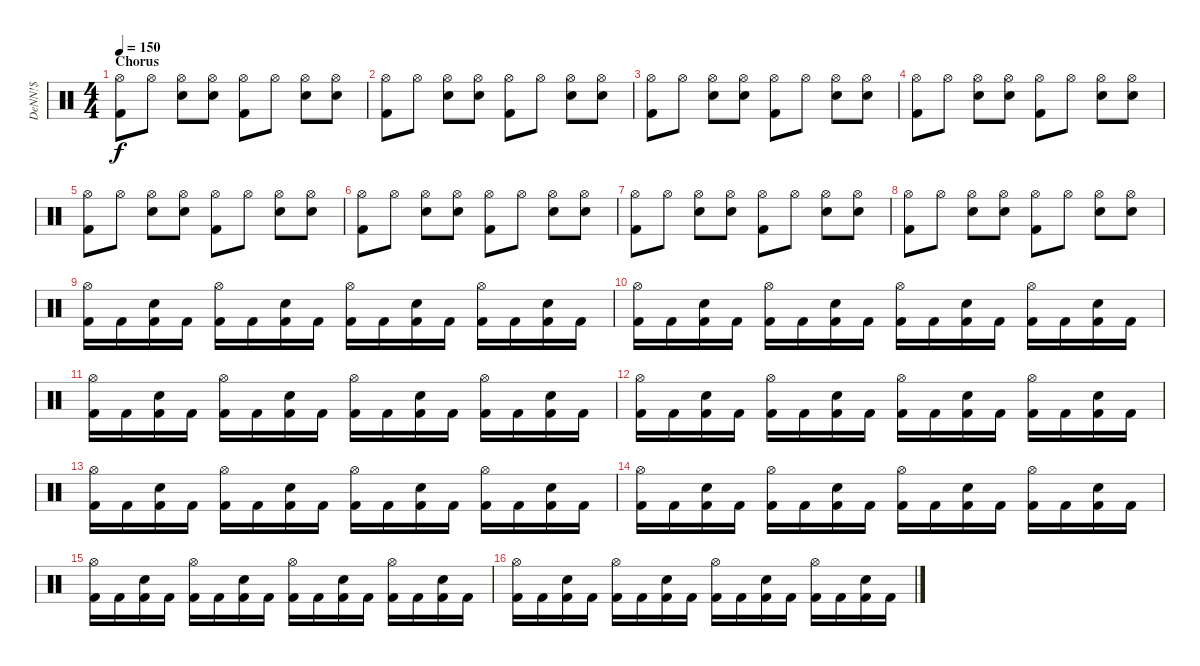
\track ("DeNN!$" "DeNN!$") {instrument percussion}
\staff {score}
\articulation defaults
\ts (4 4)
\section ("" "Chorus")
\tempo 150
\clef neutral
\ks c
("Hi-Hat (open)" "Kick (hit) 2").8{dy f} "Hi-Hat (open)".8 ("Snare (hit) 2" "Hi-Hat (open)").8 ("Snare (hit) 2" "Hi-Hat (open)").8 ("Hi-Hat (open)" "Kick (hit) 2").8 "Hi-Hat (open)".8 ("Snare (hit) 2" "Hi-Hat (open)").8 ("Snare (hit) 2" "Hi-Hat (open)").8 |
("Hi-Hat (open)" "Kick (hit) 2").8 "Hi-Hat (open)".8 ("Snare (hit) 2" "Hi-Hat (open)").8 ("Snare (hit) 2" "Hi-Hat (open)").8 ("Hi-Hat (open)" "Kick (hit) 2").8 "Hi-Hat (open)".8 ("Snare (hit) 2" "Hi-Hat (open)").8 ("Snare (hit) 2" "Hi-Hat (open)").8 |
("Hi-Hat (open)" "Kick (hit) 2").8 "Hi-Hat (open)".8 ("Snare (hit) 2" "Hi-Hat (open)").8 ("Snare (hit) 2" "Hi-Hat (open)").8 ("Hi-Hat (open)" "Kick (hit) 2").8 "Hi-Hat (open)".8 ("Snare (hit) 2" "Hi-Hat (open)").8 ("Snare (hit) 2" "Hi-Hat (open)").8 |
("Hi-Hat (open)" "Kick (hit) 2").8 "Hi-Hat (open)".8 ("Snare (hit) 2" "Hi-Hat (open)").8 ("Snare (hit) 2" "Hi-Hat (open)").8 ("Hi-Hat (open)" "Kick (hit) 2").8 "Hi-Hat (open)".8 ("Snare (hit) 2" "Hi-Hat (open)").8 ("Snare (hit) 2" "Hi-Hat (open)").8 |
("Hi-Hat (open)" "Kick (hit) 2").8 "Hi-Hat (open)".8 ("Snare (hit) 2" "Hi-Hat (open)").8 ("Snare (hit) 2" "Hi-Hat (open)").8 ("Hi-Hat (open)" "Kick (hit) 2").8 "Hi-Hat (open)".8 ("Snare (hit) 2" "Hi-Hat (open)").8 ("Snare (hit) 2" "Hi-Hat (open)").8 |
("Hi-Hat (open)" "Kick (hit) 2").8 "Hi-Hat (open)".8 ("Snare (hit) 2" "Hi-Hat (open)").8 ("Snare (hit) 2" "Hi-Hat (open)").8 ("Hi-Hat (open)" "Kick (hit) 2").8 "Hi-Hat (open)".8 ("Snare (hit) 2" "Hi-Hat (open)").8 ("Snare (hit) 2" "Hi-Hat (open)").8 |
("Hi-Hat (open)" "Kick (hit) 2").8 "Hi-Hat (open)".8 ("Snare (hit) 2" "Hi-Hat (open)").8 ("Snare (hit) 2" "Hi-Hat (open)").8 ("Hi-Hat (open)" "Kick (hit) 2").8 "Hi-Hat (open)".8 ("Snare (hit) 2" "Hi-Hat (open)").8 ("Snare (hit) 2" "Hi-Hat (open)").8 |
("Hi-Hat (open)" "Kick (hit) 2").8 "Hi-Hat (open)".8 ("Snare (hit) 2" "Hi-Hat (open)").8 ("Snare (hit) 2" "Hi-Hat (open)").8 ("Hi-Hat (open)" "Kick (hit) 2").8 "Hi-Hat (open)".8 ("Snare (hit) 2" "Hi-Hat (open)").8 ("Snare (hit) 2" "Hi-Hat (open)").8 |
("Hi-Hat (open)" "Kick (hit) 2").16 "Kick (hit) 2".16 ("Snare (hit) 2" "Kick (hit) 2").16 "Kick (hit) 2".16 ("Hi-Hat (open)" "Kick (hit) 2").16 "Kick (hit) 2".16 ("Snare (hit) 2" "Kick (hit) 2").16 "Kick (hit) 2".16 ("Hi-Hat (open)" "Kick (hit) 2").16 "Kick (hit) 2".16 ("Snare (hit) 2" "Kick (hit) 2").16 "Kick (hit) 2".16 ("Hi-Hat (open)" "Kick (hit) 2").16 "Kick (hit) 2".16 ("Snare (hit) 2" "Kick (hit) 2").16 "Kick (hit) 2".16 |
("Hi-Hat (open)" "Kick (hit) 2").16 "Kick (hit) 2".16 ("Snare (hit) 2" "Kick (hit) 2").16 "Kick (hit) 2".16 ("Hi-Hat (open)" "Kick (hit) 2").16 "Kick (hit) 2".16 ("Snare (hit) 2" "Kick (hit) 2").16 "Kick (hit) 2".16 ("Hi-Hat (open)" "Kick (hit) 2").16 "Kick (hit) 2".16 ("Snare (hit) 2" "Kick (hit) 2").16 "Kick (hit) 2".16 ("Hi-Hat (open)" "Kick (hit) 2").16 "Kick (hit) 2".16 ("Snare (hit) 2" "Kick (hit) 2").16 "Kick (hit) 2".16 |
("Hi-Hat (open)" "Kick (hit) 2").16 "Kick (hit) 2".16 ("Snare (hit) 2" "Kick (hit) 2").16 "Kick (hit) 2".16 ("Hi-Hat (open)" "Kick (hit) 2").16 "Kick (hit) 2".16 ("Snare (hit) 2" "Kick (hit) 2").16 "Kick (hit) 2".16 ("Hi-Hat (open)" "Kick (hit) 2").16 "Kick (hit) 2".16 ("Snare (hit) 2" "Kick (hit) 2").16 "Kick (hit) 2".16 ("Hi-Hat (open)" "Kick (hit) 2").16 "Kick (hit) 2".16 ("Snare (hit) 2" "Kick (hit) 2").16 "Kick (hit) 2".16 |
("Hi-Hat (open)" "Kick (hit) 2").16 "Kick (hit) 2".16 ("Snare (hit) 2" "Kick (hit) 2").16 "Kick (hit) 2".16 ("Hi-Hat (open)" "Kick (hit) 2").16 "Kick (hit) 2".16 ("Snare (hit) 2" "Kick (hit) 2").16 "Kick (hit) 2".16 ("Hi-Hat (open)" "Kick (hit) 2").16 "Kick (hit) 2".16 ("Snare (hit) 2" "Kick (hit) 2").16 "Kick (hit) 2".16 ("Hi-Hat (open)" "Kick (hit) 2").16 "Kick (hit) 2".16 ("Snare (hit) 2" "Kick (hit) 2").16 "Kick (hit) 2".16 |
("Hi-Hat (open)" "Kick (hit) 2").16 "Kick (hit) 2".16 ("Snare (hit) 2" "Kick (hit) 2").16 "Kick (hit) 2".16 ("Hi-Hat (open)" "Kick (hit) 2").16 "Kick (hit) 2".16 ("Snare (hit) 2" "Kick (hit) 2").16 "Kick (hit) 2".16 ("Hi-Hat (open)" "Kick (hit) 2").16 "Kick (hit) 2".16 ("Snare (hit) 2" "Kick (hit) 2").16 "Kick (hit) 2".16 ("Hi-Hat (open)" "Kick (hit) 2").16 "Kick (hit) 2".16 ("Snare (hit) 2" "Kick (hit) 2").16 "Kick (hit) 2".16 |
("Hi-Hat (open)" "Kick (hit) 2").16 "Kick (hit) 2".16 ("Snare (hit) 2" "Kick (hit) 2").16 "Kick (hit) 2".16 ("Hi-Hat (open)" "Kick (hit) 2").16 "Kick (hit) 2".16 ("Snare (hit) 2" "Kick (hit) 2").16 "Kick (hit) 2".16 ("Hi-Hat (open)" "Kick (hit) 2").16 "Kick (hit) 2".16 ("Snare (hit) 2" "Kick (hit) 2").16 "Kick (hit) 2".16 ("Hi-Hat (open)" "Kick (hit) 2").16 "Kick (hit) 2".16 ("Snare (hit) 2" "Kick (hit) 2").16 "Kick (hit) 2".16 |
("Hi-Hat (open)" "Kick (hit) 2").16 "Kick (hit) 2".16 ("Snare (hit) 2" "Kick (hit) 2").16 "Kick (hit) 2".16 ("Hi-Hat (open)" "Kick (hit) 2").16 "Kick (hit) 2".16 ("Snare (hit) 2" "Kick (hit) 2").16 "Kick (hit) 2".16 ("Hi-Hat (open)" "Kick (hit) 2").16 "Kick (hit) 2".16 ("Snare (hit) 2" "Kick (hit) 2").16 "Kick (hit) 2".16 ("Hi-Hat (open)" "Kick (hit) 2").16 "Kick (hit) 2".16 ("Snare (hit) 2" "Kick (hit) 2").16 "Kick (hit) 2".16 |
("Hi-Hat (open)" "Kick (hit) 2").16 "Kick (hit) 2".16 ("Snare (hit) 2" "Kick (hit) 2").16 "Kick (hit) 2".16 ("Hi-Hat (open)" "Kick (hit) 2").16 "Kick (hit) 2".16 ("Snare (hit) 2" "Kick (hit) 2").16 "Kick (hit) 2".16 ("Hi-Hat (open)" "Kick (hit) 2").16 "Kick (hit) 2".16 ("Snare (hit) 2" "Kick (hit) 2").16 "Kick (hit) 2".16 ("Hi-Hat (open)" "Kick (hit) 2").16 "Kick (hit) 2".16 ("Snare (hit) 2" "Kick (hit) 2").16 "Kick (hit) 2".16
